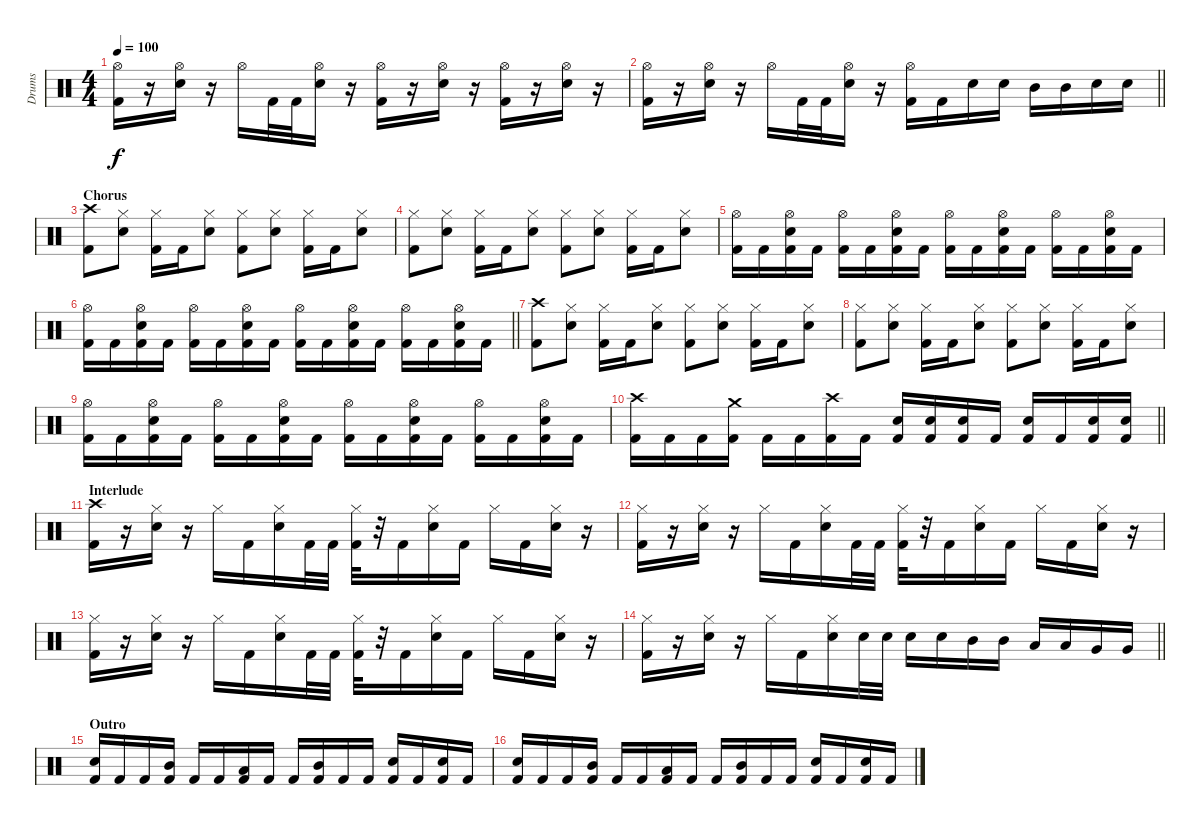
\track ("Drums" "Drums") {instrument percussion}
\staff {score}
\articulation defaults
\ts (4 4)
\tempo 100
\clef neutral
\ks c
("Hi-Hat (open)" "Kick (hit) 2").16{dy f} r.16 ("Hi-Hat (open)" "Snare (hit) 2").16 r.16 "Hi-Hat (open)".16 "Kick (hit) 2".32 "Kick (hit) 2".32 ("Hi-Hat (open)" "Snare (hit) 2").16 r.16 ("Hi-Hat (open)" "Kick (hit) 2").16 r.16 ("Hi-Hat (open)" "Snare (hit) 2").16 r.16 ("Hi-Hat (open)" "Kick (hit) 2").16 r.16 ("Hi-Hat (open)" "Snare (hit) 2").16 r.16 |
\barLineRight lightlight
("Hi-Hat (open)" "Kick (hit) 2").16 r.16 ("Hi-Hat (open)" "Snare (hit) 2").16 r.16 "Hi-Hat (open)".16 "Kick (hit) 2".32 "Kick (hit) 2".32 ("Hi-Hat (open)" "Snare (hit) 2").16 r.16 ("Hi-Hat (open)" "Kick (hit) 2").16 "Kick (hit) 2".16 "Snare (hit) 2".16 "Snare (hit) 2".16 "Mid Tom (hit)".16 "Mid Tom (hit)".16 "Snare (hit) 2".16 "Snare (hit) 2".16 |
\section ("" "Chorus")
("Crash high (hit)" "Kick (hit) 2").8 ("Hi-Hat (closed)" "Snare (hit) 2").8 ("Hi-Hat (closed)" "Kick (hit) 2").16 "Kick (hit) 2".16 ("Hi-Hat (closed)" "Snare (hit) 2").8 ("Hi-Hat (closed)" "Kick (hit) 2").8 ("Hi-Hat (closed)" "Snare (hit) 2").8 ("Hi-Hat (closed)" "Kick (hit) 2").16 "Kick (hit) 2".16 ("Hi-Hat (closed)" "Snare (hit) 2").8 |
("Hi-Hat (closed)" "Kick (hit) 2").8 ("Hi-Hat (closed)" "Snare (hit) 2").8 ("Hi-Hat (closed)" "Kick (hit) 2").16 "Kick (hit) 2".16 ("Hi-Hat (closed)" "Snare (hit) 2").8 ("Hi-Hat (closed)" "Kick (hit) 2").8 ("Hi-Hat (closed)" "Snare (hit) 2").8 ("Hi-Hat (closed)" "Kick (hit) 2").16 "Kick (hit) 2".16 ("Hi-Hat (closed)" "Snare (hit) 2").8 |
("Hi-Hat (open)" "Kick (hit) 2").16 "Kick (hit) 2".16 ("Hi-Hat (open)" "Snare (hit) 2" "Kick (hit) 2").16 "Kick (hit) 2".16 ("Hi-Hat (open)" "Kick (hit) 2").16 "Kick (hit) 2".16 ("Hi-Hat (open)" "Snare (hit) 2" "Kick (hit) 2").16 "Kick (hit) 2".16 ("Hi-Hat (open)" "Kick (hit) 2").16 "Kick (hit) 2".16 ("Hi-Hat (open)" "Snare (hit) 2" "Kick (hit) 2").16 "Kick (hit) 2".16 ("Hi-Hat (open)" "Kick (hit) 2").16 "Kick (hit) 2".16 ("Hi-Hat (open)" "Snare (hit) 2" "Kick (hit) 2").16 "Kick (hit) 2".16 |
\barLineRight lightlight
("Hi-Hat (open)" "Kick (hit) 2").16 "Kick (hit) 2".16 ("Hi-Hat (open)" "Snare (hit) 2" "Kick (hit) 2").16 "Kick (hit) 2".16 ("Hi-Hat (open)" "Kick (hit) 2").16 "Kick (hit) 2".16 ("Hi-Hat (open)" "Snare (hit) 2" "Kick (hit) 2").16 "Kick (hit) 2".16 ("Hi-Hat (open)" "Kick (hit) 2").16 "Kick (hit) 2".16 ("Hi-Hat (open)" "Snare (hit) 2" "Kick (hit) 2").16 "Kick (hit) 2".16 ("Hi-Hat (open)" "Kick (hit) 2").16 "Kick (hit) 2".16 ("Hi-Hat (open)" "Snare (hit) 2" "Kick (hit) 2").16 "Kick (hit) 2".16 |
("Crash high (hit)" "Kick (hit) 2").8 ("Hi-Hat (closed)" "Snare (hit) 2").8 ("Hi-Hat (closed)" "Kick (hit) 2").16 "Kick (hit) 2".16 ("Hi-Hat (closed)" "Snare (hit) 2").8 ("Hi-Hat (closed)" "Kick (hit) 2").8 ("Hi-Hat (closed)" "Snare (hit) 2").8 ("Hi-Hat (closed)" "Kick (hit) 2").16 "Kick (hit) 2".16 ("Hi-Hat (closed)" "Snare (hit) 2").8 |
("Hi-Hat (closed)" "Kick (hit) 2").8 ("Hi-Hat (closed)" "Snare (hit) 2").8 ("Hi-Hat (closed)" "Kick (hit) 2").16 "Kick (hit) 2".16 ("Hi-Hat (closed)" "Snare (hit) 2").8 ("Hi-Hat (closed)" "Kick (hit) 2").8 ("Hi-Hat (closed)" "Snare (hit) 2").8 ("Hi-Hat (closed)" "Kick (hit) 2").16 "Kick (hit) 2".16 ("Hi-Hat (closed)" "Snare (hit) 2").8 |
("Hi-Hat (open)" "Kick (hit) 2").16 "Kick (hit) 2".16 ("Hi-Hat (open)" "Snare (hit) 2" "Kick (hit) 2").16 "Kick (hit) 2".16 ("Hi-Hat (open)" "Kick (hit) 2").16 "Kick (hit) 2".16 ("Hi-Hat (open)" "Snare (hit) 2" "Kick (hit) 2").16 "Kick (hit) 2".16 ("Hi-Hat (open)" "Kick (hit) 2").16 "Kick (hit) 2".16 ("Hi-Hat (open)" "Snare (hit) 2" "Kick (hit) 2").16 "Kick (hit) 2".16 ("Hi-Hat (open)" "Kick (hit) 2").16 "Kick (hit) 2".16 ("Hi-Hat (open)" "Snare (hit) 2" "Kick (hit) 2").16 "Kick (hit) 2".16 |
\barLineRight lightlight
("Crash high (hit)" "Kick (hit) 2").16 "Kick (hit) 2".16 "Kick (hit) 2".16 ("Crash medium (hit)" "Kick (hit) 2").16 "Kick (hit) 2".16 "Kick (hit) 2".16 ("Crash high (hit)" "Kick (hit) 2").16 "Kick (hit) 2".16 ("Snare (hit) 2" "Kick (hit) 2").16 ("Snare (hit) 2" "Kick (hit) 2").16 ("Snare (hit) 2" "Kick (hit) 2").16 "Kick (hit) 2".16 ("Snare (hit) 2" "Kick (hit) 2").16 "Kick (hit) 2".16 ("Snare (hit) 2" "Kick (hit) 2").16 ("Snare (hit) 2" "Kick (hit) 2").16 |
\section ("" "Interlude")
("Crash high (hit)" "Kick (hit) 2").16 r.16 ("Hi-Hat (closed)" "Snare (hit) 2").16 r.16 "Hi-Hat (closed)".16 "Kick (hit) 2".16 ("Hi-Hat (closed)" "Snare (hit) 2").16 "Kick (hit) 2".32 "Kick (hit) 2".32 ("Hi-Hat (closed)" "Kick (hit) 2").32 r.32 "Kick (hit) 2".16 ("Hi-Hat (closed)" "Snare (hit) 2").16 "Kick (hit) 2".16 "Hi-Hat (closed)".16 "Kick (hit) 2".16 ("Hi-Hat (closed)" "Snare (hit) 2").16 r.16 |
("Hi-Hat (closed)" "Kick (hit) 2").16 r.16 ("Hi-Hat (closed)" "Snare (hit) 2").16 r.16 "Hi-Hat (closed)".16 "Kick (hit) 2".16 ("Hi-Hat (closed)" "Snare (hit) 2").16 "Kick (hit) 2".32 "Kick (hit) 2".32 ("Hi-Hat (closed)" "Kick (hit) 2").32 r.32 "Kick (hit) 2".16 ("Hi-Hat (closed)" "Snare (hit) 2").16 "Kick (hit) 2".16 "Hi-Hat (closed)".16 "Kick (hit) 2".16 ("Hi-Hat (closed)" "Snare (hit) 2").16 r.16 |
("Hi-Hat (closed)" "Kick (hit) 2").16 r.16 ("Hi-Hat (closed)" "Snare (hit) 2").16 r.16 "Hi-Hat (closed)".16 "Kick (hit) 2".16 ("Hi-Hat (closed)" "Snare (hit) 2").16 "Kick (hit) 2".32 "Kick (hit) 2".32 ("Hi-Hat (closed)" "Kick (hit) 2").32 r.32 "Kick (hit) 2".16 ("Hi-Hat (closed)" "Snare (hit) 2").16 "Kick (hit) 2".16 "Hi-Hat (closed)".16 "Kick (hit) 2".16 ("Hi-Hat (closed)" "Snare (hit) 2").16 r.16 |
\barLineRight lightlight
("Hi-Hat (closed)" "Kick (hit) 2").16 r.16 ("Hi-Hat (closed)" "Snare (hit) 2").16 r.16 "Hi-Hat (closed)".16 "Kick (hit) 2".16 ("Hi-Hat (closed)" "Snare (hit) 2").16 "Snare (hit) 2".32 "Snare (hit) 2".32 "Snare (hit) 2".16 "Snare (hit) 2".16 "Mid Tom (hit)".16 "Mid Tom (hit)".16 "Low Tom (hit)".16 "Low Tom (hit)".16 "Very Low Tom (hit)".16 "Very Low Tom (hit)".16 |
\section ("" "Outro")
("Snare (hit) 2" "Kick (hit) 2").16 "Kick (hit) 2".16 "Kick (hit) 2".16 ("Mid Tom (hit)" "Kick (hit) 2").16 "Kick (hit) 2".16 "Kick (hit) 2".16 ("Low Tom (hit)" "Kick (hit) 2").16 "Kick (hit) 2".16 "Kick (hit) 2".16 ("Mid Tom (hit)" "Kick (hit) 2").16 "Kick (hit) 2".16 "Kick (hit) 2".16 ("Snare (hit) 2" "Kick (hit) 2").16 "Kick (hit) 2".16 ("Snare (hit) 2" "Kick (hit) 2").16 "Kick (hit) 2".16 |
("Snare (hit) 2" "Kick (hit) 2").16 "Kick (hit) 2".16 "Kick (hit) 2".16 ("Mid Tom (hit)" "Kick (hit) 2").16 "Kick (hit) 2".16 "Kick (hit) 2".16 ("Low Tom (hit)" "Kick (hit) 2").16 "Kick (hit) 2".16 "Kick (hit) 2".16 ("Mid Tom (hit)" "Kick (hit) 2").16 "Kick (hit) 2".16 "Kick (hit) 2".16 ("Snare (hit) 2" "Kick (hit) 2").16 "Kick (hit) 2".16 ("Snare (hit) 2" "Kick (hit) 2").16 "Kick (hit) 2".16
